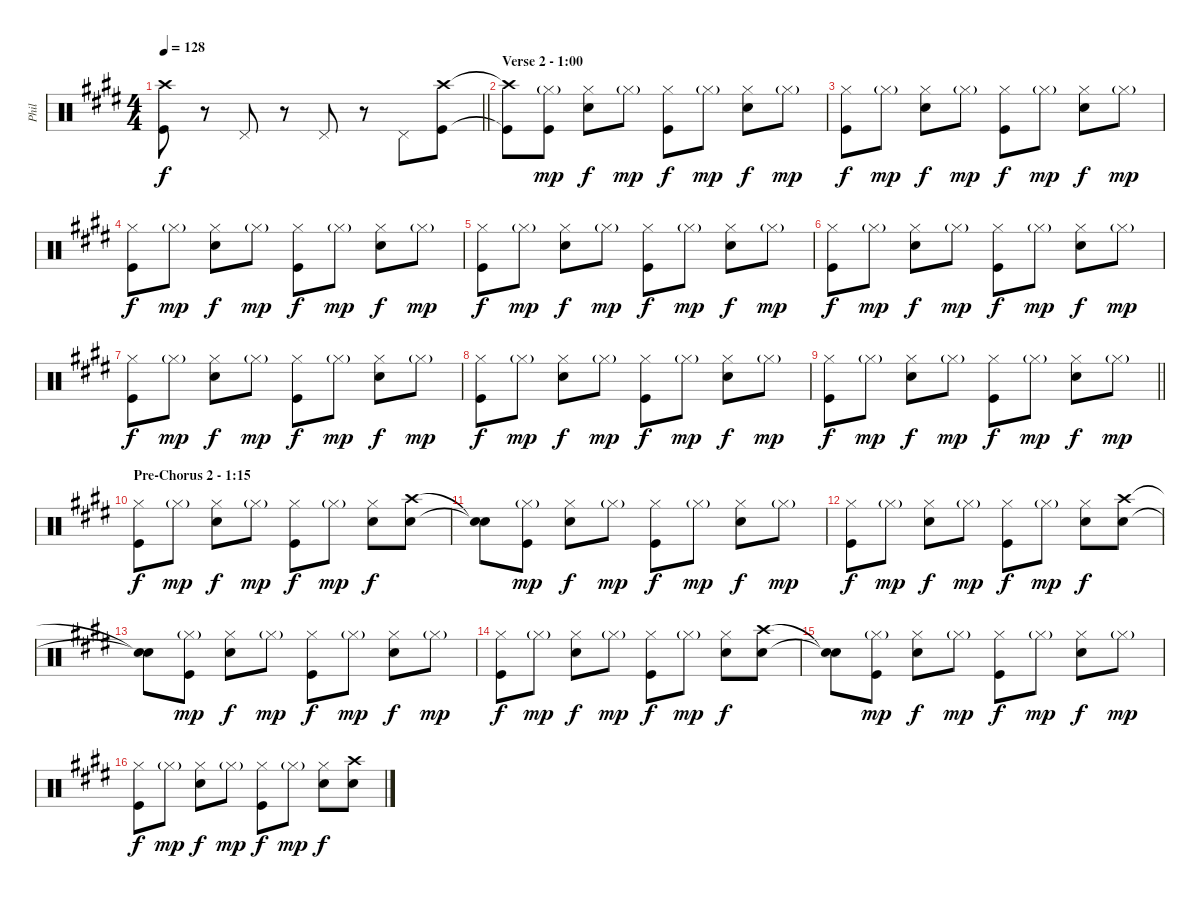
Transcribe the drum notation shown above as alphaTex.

\track ("Phil" "Phil") {instrument percussion}
\staff {score}
\articulation defaults
\ts (4 4)
\tempo 128
\clef neutral
\barLineRight lightlight
\ks e
("Crash high (hit)" "Kick (hit)").8{dy f} r.8 "Pedal Hi-Hat (hit)".8 r.8 "Pedal Hi-Hat (hit)".8 r.8 "Pedal Hi-Hat (hit)".8 ("Crash high (hit)" "Kick (hit)").8 |
\section ("" "Verse 2 - 1:00")
("Crash high (hit)"{t} "Kick (hit)"{t}).8 ("Hi-Hat (closed)"{g} "Kick (hit)").8{dy mp} ("Hi-Hat (closed)" "Electric Snare (hit)").8{dy f} "Hi-Hat (closed)"{g}.8{dy mp} ("Hi-Hat (closed)" "Kick (hit)").8{dy f} "Hi-Hat (closed)"{g}.8{dy mp} ("Hi-Hat (closed)" "Electric Snare (hit)").8{dy f} "Hi-Hat (closed)"{g}.8{dy mp} |
("Hi-Hat (closed)" "Kick (hit)").8{dy f} "Hi-Hat (closed)"{g}.8{dy mp} ("Hi-Hat (closed)" "Electric Snare (hit)").8{dy f} "Hi-Hat (closed)"{g}.8{dy mp} ("Hi-Hat (closed)" "Kick (hit)").8{dy f} "Hi-Hat (closed)"{g}.8{dy mp} ("Hi-Hat (closed)" "Electric Snare (hit)").8{dy f} "Hi-Hat (closed)"{g}.8{dy mp} |
("Hi-Hat (closed)" "Kick (hit)").8{dy f} "Hi-Hat (closed)"{g}.8{dy mp} ("Hi-Hat (closed)" "Electric Snare (hit)").8{dy f} "Hi-Hat (closed)"{g}.8{dy mp} ("Hi-Hat (closed)" "Kick (hit)").8{dy f} "Hi-Hat (closed)"{g}.8{dy mp} ("Hi-Hat (closed)" "Electric Snare (hit)").8{dy f} "Hi-Hat (closed)"{g}.8{dy mp} |
("Hi-Hat (closed)" "Kick (hit)").8{dy f} "Hi-Hat (closed)"{g}.8{dy mp} ("Hi-Hat (closed)" "Electric Snare (hit)").8{dy f} "Hi-Hat (closed)"{g}.8{dy mp} ("Hi-Hat (closed)" "Kick (hit)").8{dy f} "Hi-Hat (closed)"{g}.8{dy mp} ("Hi-Hat (closed)" "Electric Snare (hit)").8{dy f} "Hi-Hat (closed)"{g}.8{dy mp} |
("Hi-Hat (closed)" "Kick (hit)").8{dy f} "Hi-Hat (closed)"{g}.8{dy mp} ("Hi-Hat (closed)" "Electric Snare (hit)").8{dy f} "Hi-Hat (closed)"{g}.8{dy mp} ("Hi-Hat (closed)" "Kick (hit)").8{dy f} "Hi-Hat (closed)"{g}.8{dy mp} ("Hi-Hat (closed)" "Electric Snare (hit)").8{dy f} "Hi-Hat (closed)"{g}.8{dy mp} |
("Hi-Hat (closed)" "Kick (hit)").8{dy f} "Hi-Hat (closed)"{g}.8{dy mp} ("Hi-Hat (closed)" "Electric Snare (hit)").8{dy f} "Hi-Hat (closed)"{g}.8{dy mp} ("Hi-Hat (closed)" "Kick (hit)").8{dy f} "Hi-Hat (closed)"{g}.8{dy mp} ("Hi-Hat (closed)" "Electric Snare (hit)").8{dy f} "Hi-Hat (closed)"{g}.8{dy mp} |
("Hi-Hat (closed)" "Kick (hit)").8{dy f} "Hi-Hat (closed)"{g}.8{dy mp} ("Hi-Hat (closed)" "Electric Snare (hit)").8{dy f} "Hi-Hat (closed)"{g}.8{dy mp} ("Hi-Hat (closed)" "Kick (hit)").8{dy f} "Hi-Hat (closed)"{g}.8{dy mp} ("Hi-Hat (closed)" "Electric Snare (hit)").8{dy f} "Hi-Hat (closed)"{g}.8{dy mp} |
\barLineRight lightlight
("Hi-Hat (closed)" "Kick (hit)").8{dy f} "Hi-Hat (closed)"{g}.8{dy mp} ("Hi-Hat (closed)" "Electric Snare (hit)").8{dy f} "Hi-Hat (closed)"{g}.8{dy mp} ("Hi-Hat (closed)" "Kick (hit)").8{dy f} "Hi-Hat (closed)"{g}.8{dy mp} ("Hi-Hat (closed)" "Electric Snare (hit)").8{dy f} "Hi-Hat (closed)"{g}.8{dy mp} |
\section ("" "Pre-Chorus 2 - 1:15")
("Hi-Hat (closed)" "Kick (hit)").8{dy f} "Hi-Hat (closed)"{g}.8{dy mp} ("Hi-Hat (closed)" "Electric Snare (hit)").8{dy f} "Hi-Hat (closed)"{g}.8{dy mp} ("Hi-Hat (closed)" "Kick (hit)").8{dy f} "Hi-Hat (closed)"{g}.8{dy mp} ("Hi-Hat (closed)" "Electric Snare (hit)").8{dy f} ("Crash high (hit)" "Electric Snare (hit)").8 |
("Snare (hit)"{t} "Snare (hit)"{t}).8 ("Hi-Hat (closed)"{g} "Kick (hit)").8{dy mp} ("Hi-Hat (closed)" "Electric Snare (hit)").8{dy f} "Hi-Hat (closed)"{g}.8{dy mp} ("Hi-Hat (closed)" "Kick (hit)").8{dy f} "Hi-Hat (closed)"{g}.8{dy mp} ("Hi-Hat (closed)" "Electric Snare (hit)").8{dy f} "Hi-Hat (closed)"{g}.8{dy mp} |
("Hi-Hat (closed)" "Kick (hit)").8{dy f} "Hi-Hat (closed)"{g}.8{dy mp} ("Hi-Hat (closed)" "Electric Snare (hit)").8{dy f} "Hi-Hat (closed)"{g}.8{dy mp} ("Hi-Hat (closed)" "Kick (hit)").8{dy f} "Hi-Hat (closed)"{g}.8{dy mp} ("Hi-Hat (closed)" "Electric Snare (hit)").8{dy f} ("Crash high (hit)" "Electric Snare (hit)").8 |
("Snare (hit)"{t} "Snare (hit)"{t}).8 ("Hi-Hat (closed)"{g} "Kick (hit)").8{dy mp} ("Hi-Hat (closed)" "Electric Snare (hit)").8{dy f} "Hi-Hat (closed)"{g}.8{dy mp} ("Hi-Hat (closed)" "Kick (hit)").8{dy f} "Hi-Hat (closed)"{g}.8{dy mp} ("Hi-Hat (closed)" "Electric Snare (hit)").8{dy f} "Hi-Hat (closed)"{g}.8{dy mp} |
("Hi-Hat (closed)" "Kick (hit)").8{dy f} "Hi-Hat (closed)"{g}.8{dy mp} ("Hi-Hat (closed)" "Electric Snare (hit)").8{dy f} "Hi-Hat (closed)"{g}.8{dy mp} ("Hi-Hat (closed)" "Kick (hit)").8{dy f} "Hi-Hat (closed)"{g}.8{dy mp} ("Hi-Hat (closed)" "Electric Snare (hit)").8{dy f} ("Crash high (hit)" "Electric Snare (hit)").8 |
("Snare (hit)"{t} "Snare (hit)"{t}).8 ("Hi-Hat (closed)"{g} "Kick (hit)").8{dy mp} ("Hi-Hat (closed)" "Electric Snare (hit)").8{dy f} "Hi-Hat (closed)"{g}.8{dy mp} ("Hi-Hat (closed)" "Kick (hit)").8{dy f} "Hi-Hat (closed)"{g}.8{dy mp} ("Hi-Hat (closed)" "Electric Snare (hit)").8{dy f} "Hi-Hat (closed)"{g}.8{dy mp} |
("Hi-Hat (closed)" "Kick (hit)").8{dy f} "Hi-Hat (closed)"{g}.8{dy mp} ("Hi-Hat (closed)" "Electric Snare (hit)").8{dy f} "Hi-Hat (closed)"{g}.8{dy mp} ("Hi-Hat (closed)" "Kick (hit)").8{dy f} "Hi-Hat (closed)"{g}.8{dy mp} ("Hi-Hat (closed)" "Electric Snare (hit)").8{dy f} ("Crash high (hit)" "Electric Snare (hit)").8
